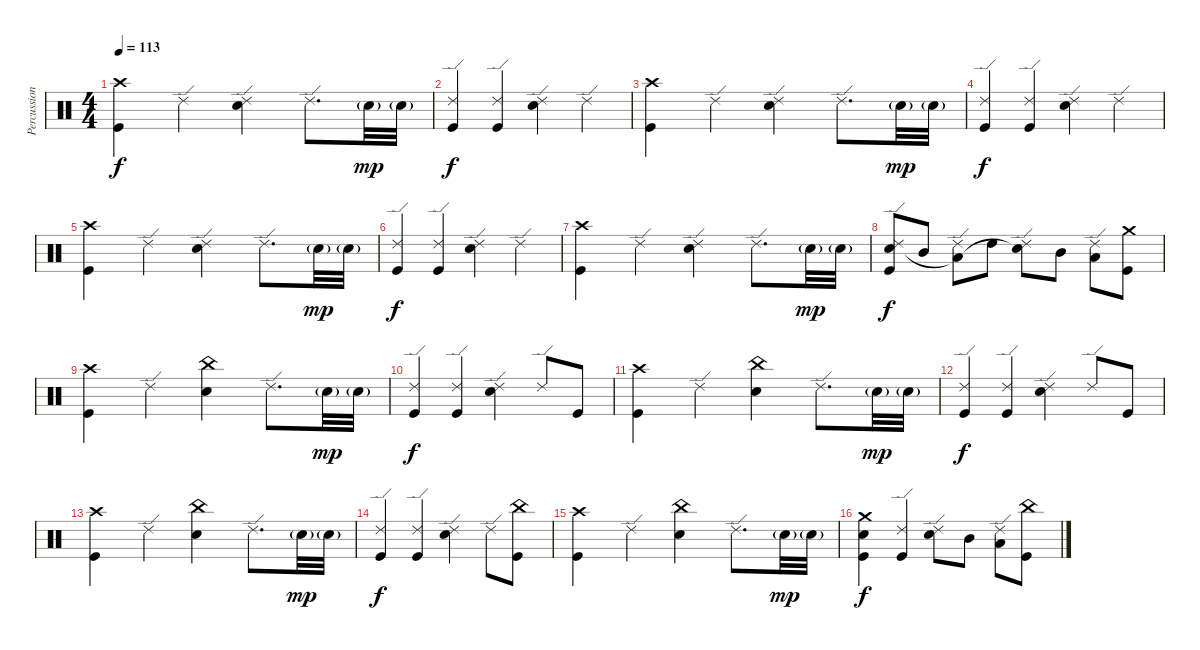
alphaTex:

\track ("Percussioni" "Percussion") {instrument percussion}
\staff {score}
\articulation defaults
\ts (4 4)
\tempo 113
\clef neutral
\ks c
("Crash high (hit)" "Kick (hit)").4{dy f} "Ride (edge) 2".4 ("Ride (edge) 2" "Electric Snare (hit)").4 "Ride (edge) 2".8{d} "Electric Snare (hit)"{g}.32{dy mp} "Electric Snare (hit)"{g}.32 |
("Ride (edge) 2" "Kick (hit)").4{dy f} ("Ride (edge) 2" "Kick (hit)").4 ("Ride (edge) 2" "Electric Snare (hit)").4 "Ride (edge) 2".4 |
("Crash high (hit)" "Kick (hit)").4 "Ride (edge) 2".4 ("Ride (edge) 2" "Electric Snare (hit)").4 "Ride (edge) 2".8{d} "Electric Snare (hit)"{g}.32{dy mp} "Electric Snare (hit)"{g}.32 |
("Ride (edge) 2" "Kick (hit)").4{dy f} ("Ride (edge) 2" "Kick (hit)").4 ("Ride (edge) 2" "Electric Snare (hit)").4 "Ride (edge) 2".4 |
("Crash high (hit)" "Kick (hit)").4 "Ride (edge) 2".4 ("Ride (edge) 2" "Electric Snare (hit)").4 "Ride (edge) 2".8{d} "Electric Snare (hit)"{g}.32{dy mp} "Electric Snare (hit)"{g}.32 |
("Ride (edge) 2" "Kick (hit)").4{dy f} ("Ride (edge) 2" "Kick (hit)").4 ("Ride (edge) 2" "Electric Snare (hit)").4 "Ride (edge) 2".4 |
("Crash high (hit)" "Kick (hit)").4 "Ride (edge) 2".4 ("Ride (edge) 2" "Electric Snare (hit)").4 "Ride (edge) 2".8{d} "Electric Snare (hit)"{g}.32{dy mp} "Electric Snare (hit)"{g}.32 |
("Ride (edge) 2" "Electric Snare (hit)" "Kick (hit)").8{dy f} "Mid Tom (hit)".8 ("Ride (edge) 2" "Low Tom (hit)"{t}).8 "High Tom (hit)".8 ("Ride (edge) 2" "Snare (hit)"{t}).8 "Mid Tom (hit)".8 ("Ride (edge) 2" "Low Tom (hit)").8 ("Crash medium (hit)" "Kick (hit)").8 |
("Crash high (hit)" "Kick (hit)").4 "Ride (edge) 2".4 ("China (hit)" "Electric Snare (hit)").4 "Ride (edge) 2".8{d} "Electric Snare (hit)"{g}.32{dy mp} "Electric Snare (hit)"{g}.32 |
("Ride (edge) 2" "Kick (hit)").4{dy f} ("Ride (edge) 2" "Kick (hit)").4 ("Ride (edge) 2" "Electric Snare (hit)").4 "Ride (edge) 2".8 "Kick (hit)".8 |
("Crash high (hit)" "Kick (hit)").4 "Ride (edge) 2".4 ("China (hit)" "Electric Snare (hit)").4 "Ride (edge) 2".8{d} "Electric Snare (hit)"{g}.32{dy mp} "Electric Snare (hit)"{g}.32 |
("Ride (edge) 2" "Kick (hit)").4{dy f} ("Ride (edge) 2" "Kick (hit)").4 ("Ride (edge) 2" "Electric Snare (hit)").4 "Ride (edge) 2".8 "Kick (hit)".8 |
("Crash high (hit)" "Kick (hit)").4 "Ride (edge) 2".4 ("China (hit)" "Electric Snare (hit)").4 "Ride (edge) 2".8{d} "Electric Snare (hit)"{g}.32{dy mp} "Electric Snare (hit)"{g}.32 |
("Ride (edge) 2" "Kick (hit)").4{dy f} ("Ride (edge) 2" "Kick (hit)").4 ("Ride (edge) 2" "Electric Snare (hit)").4 "Ride (edge) 2".8 ("China (hit)" "Kick (hit)").8 |
("Crash high (hit)" "Kick (hit)").4 "Ride (edge) 2".4 ("China (hit)" "Electric Snare (hit)").4 "Ride (edge) 2".8{d} "Electric Snare (hit)"{g}.32{dy mp} "Electric Snare (hit)"{g}.32 |
("Crash medium (hit)" "Electric Snare (hit)" "Kick (hit)").4{dy f} ("Ride (edge) 2" "Kick (hit)").4 ("Ride (edge) 2" "Electric Snare (hit)").8 "Mid Tom (hit)".8 ("Ride (edge) 2" "Low Tom (hit)").8 ("China (hit)" "Kick (hit)").8
